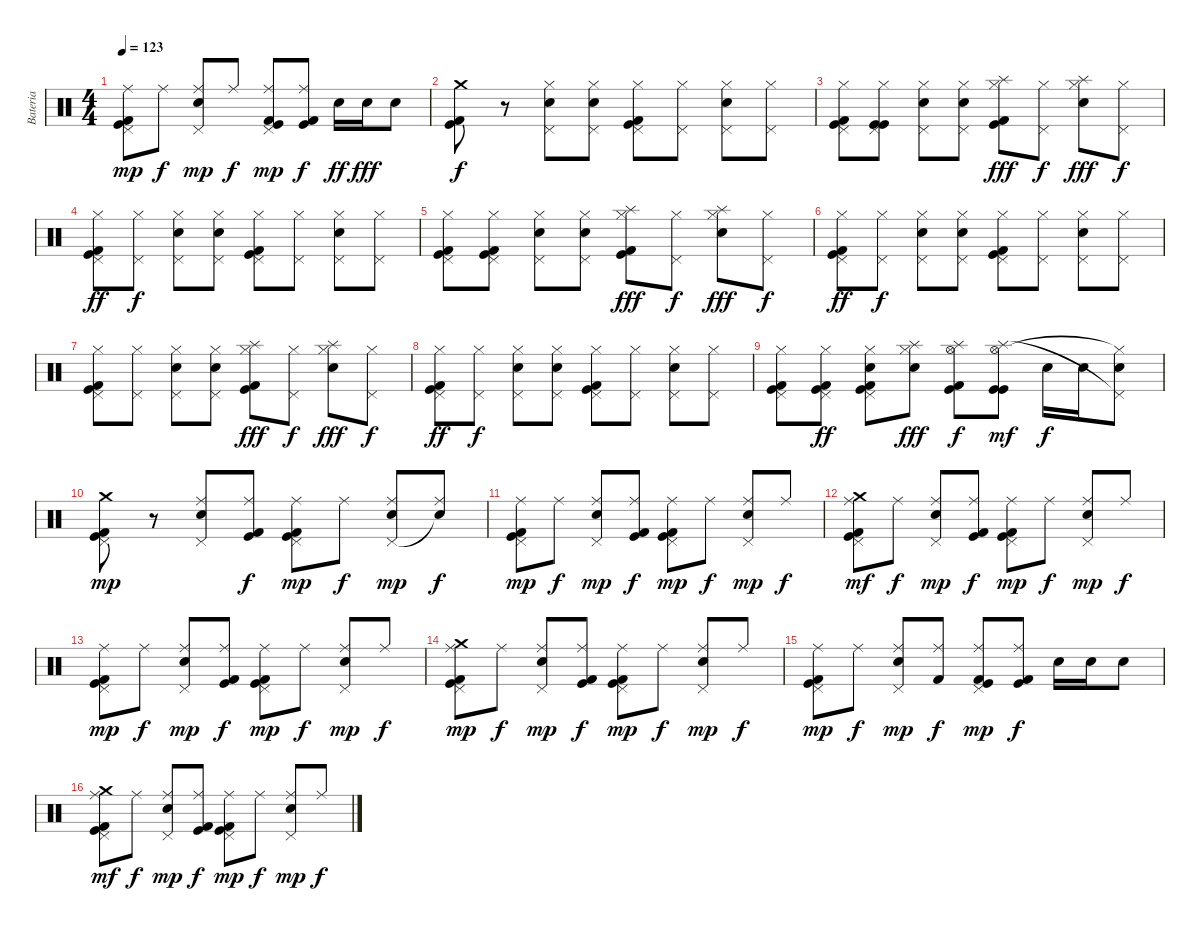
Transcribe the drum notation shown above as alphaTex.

\track ("Bateria" "Bateria") {instrument percussion}
\staff {score}
\articulation defaults
\ts (4 4)
\tempo 123
\clef neutral
\ks c
("Kick (hit) 2" "Pedal Hi-Hat (hit)" "Ride (middle)" "Kick (hit)").8{dy mp} "Ride (middle)".8{dy f} ("Snare (hit) 2" "Pedal Hi-Hat (hit)" "Ride (middle)").8{dy mp} "Ride (middle)".8{dy f} ("Kick (hit) 2" "Pedal Hi-Hat (hit)" "Ride (middle)" "Kick (hit)").8{dy mp} ("Kick (hit) 2" "Ride (middle)" "Kick (hit)").8{dy f} "Snare (hit) 2".16{dy ff} "Snare (hit) 2".16{dy fff} "Snare (hit) 2".8 |
("Kick (hit) 2" "Crash medium (hit)" "Kick (hit)").8{dy f} r.8 ("Snare (hit) 2" "Pedal Hi-Hat (hit)" "Hi-Hat (closed)").8 ("Snare (hit) 2" "Pedal Hi-Hat (hit)" "Hi-Hat (closed)").8 ("Kick (hit) 2" "Pedal Hi-Hat (hit)" "Hi-Hat (closed)" "Kick (hit)").8 ("Pedal Hi-Hat (hit)" "Hi-Hat (closed)").8 ("Snare (hit) 2" "Pedal Hi-Hat (hit)" "Hi-Hat (closed)").8 ("Pedal Hi-Hat (hit)" "Hi-Hat (closed)").8 |
("Kick (hit) 2" "Pedal Hi-Hat (hit)" "Hi-Hat (closed)" "Kick (hit)").8 ("Kick (hit)" "Pedal Hi-Hat (hit)" "Hi-Hat (closed)" "Kick (hit)").8 ("Snare (hit) 2" "Pedal Hi-Hat (hit)" "Hi-Hat (closed)").8 ("Snare (hit) 2" "Pedal Hi-Hat (hit)" "Hi-Hat (closed)").8 ("Kick (hit) 2" "Splash (hit)" "Hi-Hat (closed)" "Kick (hit)").8{dy fff} ("Pedal Hi-Hat (hit)" "Hi-Hat (closed)").8{dy f} ("Snare (hit) 2" "Splash (hit)" "Hi-Hat (closed)").8{dy fff} ("Pedal Hi-Hat (hit)" "Hi-Hat (closed)").8{dy f} |
("Kick (hit) 2" "Pedal Hi-Hat (hit)" "Hi-Hat (closed)" "Kick (hit)").8{dy ff} ("Pedal Hi-Hat (hit)" "Hi-Hat (closed)").8{dy f} ("Snare (hit) 2" "Pedal Hi-Hat (hit)" "Hi-Hat (closed)").8 ("Snare (hit) 2" "Pedal Hi-Hat (hit)" "Hi-Hat (closed)").8 ("Kick (hit) 2" "Pedal Hi-Hat (hit)" "Hi-Hat (closed)" "Kick (hit)").8 ("Pedal Hi-Hat (hit)" "Hi-Hat (closed)").8 ("Snare (hit) 2" "Pedal Hi-Hat (hit)" "Hi-Hat (closed)").8 ("Pedal Hi-Hat (hit)" "Hi-Hat (closed)").8 |
("Kick (hit) 2" "Pedal Hi-Hat (hit)" "Hi-Hat (closed)" "Kick (hit)").8 ("Kick (hit) 2" "Pedal Hi-Hat (hit)" "Hi-Hat (closed)" "Kick (hit)").8 ("Snare (hit) 2" "Pedal Hi-Hat (hit)" "Hi-Hat (closed)").8 ("Snare (hit) 2" "Pedal Hi-Hat (hit)" "Hi-Hat (closed)").8 ("Kick (hit) 2" "Splash (hit)" "Hi-Hat (closed)" "Kick (hit)").8{dy fff} ("Pedal Hi-Hat (hit)" "Hi-Hat (closed)").8{dy f} ("Snare (hit) 2" "Splash (hit)" "Hi-Hat (closed)").8{dy fff} ("Pedal Hi-Hat (hit)" "Hi-Hat (closed)").8{dy f} |
("Kick (hit) 2" "Pedal Hi-Hat (hit)" "Hi-Hat (closed)" "Kick (hit)").8{dy ff} ("Pedal Hi-Hat (hit)" "Hi-Hat (closed)").8{dy f} ("Snare (hit) 2" "Pedal Hi-Hat (hit)" "Hi-Hat (closed)").8 ("Snare (hit) 2" "Pedal Hi-Hat (hit)" "Hi-Hat (closed)").8 ("Kick (hit) 2" "Pedal Hi-Hat (hit)" "Hi-Hat (closed)" "Kick (hit)").8 ("Pedal Hi-Hat (hit)" "Hi-Hat (closed)").8 ("Snare (hit) 2" "Pedal Hi-Hat (hit)" "Hi-Hat (closed)").8 ("Pedal Hi-Hat (hit)" "Hi-Hat (closed)").8 |
("Kick (hit) 2" "Pedal Hi-Hat (hit)" "Hi-Hat (closed)" "Kick (hit)").8 ("Pedal Hi-Hat (hit)" "Hi-Hat (closed)").8 ("Snare (hit) 2" "Pedal Hi-Hat (hit)" "Hi-Hat (closed)").8 ("Snare (hit) 2" "Pedal Hi-Hat (hit)" "Hi-Hat (closed)").8 ("Kick (hit) 2" "Splash (hit)" "Hi-Hat (closed)" "Kick (hit)").8{dy fff} ("Pedal Hi-Hat (hit)" "Hi-Hat (closed)").8{dy f} ("Snare (hit) 2" "Splash (hit)" "Hi-Hat (closed)").8{dy fff} ("Pedal Hi-Hat (hit)" "Hi-Hat (closed)").8{dy f} |
("Kick (hit) 2" "Pedal Hi-Hat (hit)" "Hi-Hat (closed)" "Kick (hit)").8{dy ff} ("Pedal Hi-Hat (hit)" "Hi-Hat (closed)").8{dy f} ("Snare (hit) 2" "Pedal Hi-Hat (hit)" "Hi-Hat (closed)").8 ("Snare (hit) 2" "Pedal Hi-Hat (hit)" "Hi-Hat (closed)").8 ("Kick (hit) 2" "Pedal Hi-Hat (hit)" "Hi-Hat (closed)" "Kick (hit)").8 ("Pedal Hi-Hat (hit)" "Hi-Hat (closed)").8 ("Snare (hit) 2" "Pedal Hi-Hat (hit)" "Hi-Hat (closed)").8 ("Pedal Hi-Hat (hit)" "Hi-Hat (closed)").8 |
("Kick (hit) 2" "Pedal Hi-Hat (hit)" "Hi-Hat (closed)" "Kick (hit)").8 ("Kick (hit) 2" "Pedal Hi-Hat (hit)" "Hi-Hat (closed)" "Kick (hit)").8{dy ff} ("Snare (hit) 2" "Kick (hit) 2" "Pedal Hi-Hat (hit)" "Hi-Hat (closed)" "Kick (hit)").8 ("Snare (hit) 2" "Splash (hit)" "Hi-Hat (closed)").8{dy fff} ("Kick (hit) 2" "Splash (hit)" "Hi-Hat (open)" "Kick (hit)").8{dy f} ("Kick (hit)" "Splash (hit)" "Hi-Hat (open)" "Kick (hit)").8{dy mf} "Snare (hit) 2".16{dy f} "Snare (hit) 2".16 ("Snare (hit) 2" "Pedal Hi-Hat (hit)"{t} "Hi-Hat (closed)"{t}).8 |
("Kick (hit) 2" "Pedal Hi-Hat (hit)" "Crash medium (hit)" "Kick (hit)").8{dy mp} r.8 ("Snare (hit) 2" "Pedal Hi-Hat (hit)" "Ride (middle)").8 ("Kick (hit) 2" "Ride (middle)" "Kick (hit)").8{dy f} ("Kick (hit) 2" "Pedal Hi-Hat (hit)" "Ride (middle)" "Kick (hit)").8{dy mp} "Ride (middle)".8{dy f} ("Snare (hit) 2" "Pedal Hi-Hat (hit)" "Ride (middle)").8{dy mp} ("Ride (middle)" "Snare (hit)"{t}).8{dy f} |
("Kick (hit) 2" "Pedal Hi-Hat (hit)" "Ride (middle)" "Kick (hit)").8{dy mp} "Ride (middle)".8{dy f} ("Snare (hit) 2" "Pedal Hi-Hat (hit)" "Ride (middle)").8{dy mp} ("Kick (hit) 2" "Ride (middle)" "Kick (hit)").8{dy f} ("Kick (hit) 2" "Pedal Hi-Hat (hit)" "Ride (middle)" "Kick (hit)").8{dy mp} "Ride (middle)".8{dy f} ("Snare (hit) 2" "Pedal Hi-Hat (hit)" "Ride (middle)").8{dy mp} "Ride (middle)".8{dy f} |
("Kick (hit) 2" "Pedal Hi-Hat (hit)" "Crash medium (hit)" "Ride (middle)" "Kick (hit)").8{dy mf} "Ride (middle)".8{dy f} ("Snare (hit) 2" "Pedal Hi-Hat (hit)" "Ride (middle)").8{dy mp} ("Kick (hit) 2" "Ride (middle)" "Kick (hit)").8{dy f} ("Kick (hit) 2" "Pedal Hi-Hat (hit)" "Ride (middle)" "Kick (hit)").8{dy mp} "Ride (middle)".8{dy f} ("Snare (hit) 2" "Pedal Hi-Hat (hit)" "Ride (middle)").8{dy mp} "Ride (middle)".8{dy f} |
("Kick (hit) 2" "Pedal Hi-Hat (hit)" "Ride (middle)" "Kick (hit)").8{dy mp} "Ride (middle)".8{dy f} ("Snare (hit) 2" "Pedal Hi-Hat (hit)" "Ride (middle)").8{dy mp} ("Kick (hit) 2" "Ride (middle)" "Kick (hit)").8{dy f} ("Kick (hit) 2" "Pedal Hi-Hat (hit)" "Ride (middle)" "Kick (hit)").8{dy mp} "Ride (middle)".8{dy f} ("Snare (hit) 2" "Pedal Hi-Hat (hit)" "Ride (middle)").8{dy mp} "Ride (middle)".8{dy f} |
("Kick (hit) 2" "Pedal Hi-Hat (hit)" "Crash medium (hit)" "Ride (middle)" "Kick (hit)").8{dy mp} "Ride (middle)".8{dy f} ("Snare (hit) 2" "Pedal Hi-Hat (hit)" "Ride (middle)").8{dy mp} ("Kick (hit) 2" "Ride (middle)" "Kick (hit)").8{dy f} ("Kick (hit) 2" "Pedal Hi-Hat (hit)" "Ride (middle)" "Kick (hit)").8{dy mp} "Ride (middle)".8{dy f} ("Snare (hit) 2" "Pedal Hi-Hat (hit)" "Ride (middle)").8{dy mp} "Ride (middle)".8{dy f} |
("Kick (hit) 2" "Pedal Hi-Hat (hit)" "Ride (middle)" "Kick (hit)").8{dy mp} "Ride (middle)".8{dy f} ("Snare (hit) 2" "Pedal Hi-Hat (hit)" "Ride (middle)").8{dy mp} ("Kick (hit) 2" "Ride (middle)").8{dy f} ("Pedal Hi-Hat (hit)" "Kick (hit)" "Ride (middle)" "Kick (hit) 2").8{dy mp} ("Kick (hit) 2" "Ride (middle)" "Kick (hit)").8{dy f} "Snare (hit) 2".16 "Snare (hit) 2".16 "Snare (hit) 2".8 |
("Kick (hit) 2" "Pedal Hi-Hat (hit)" "Crash medium (hit)" "Ride (middle)" "Kick (hit)").8{dy mf} "Ride (middle)".8{dy f} ("Snare (hit) 2" "Pedal Hi-Hat (hit)" "Ride (middle)").8{dy mp} ("Kick (hit) 2" "Ride (middle)" "Kick (hit)").8{dy f} ("Kick (hit) 2" "Pedal Hi-Hat (hit)" "Ride (middle)" "Kick (hit)").8{dy mp} "Ride (middle)".8{dy f} ("Snare (hit) 2" "Pedal Hi-Hat (hit)" "Ride (middle)").8{dy mp} "Ride (middle)".8{dy f}
